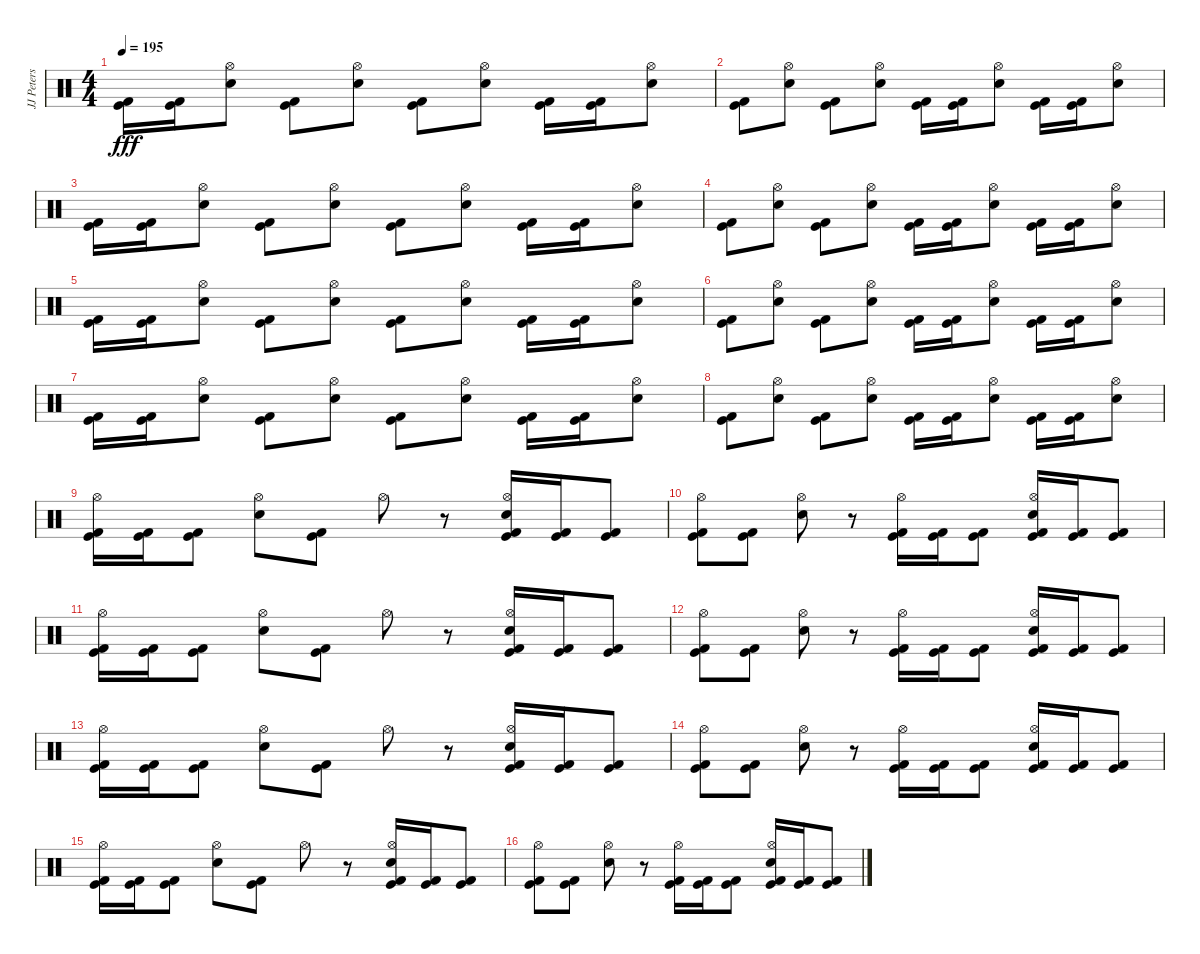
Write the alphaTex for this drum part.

\track ("JJ Peters" "JJ Peters") {instrument percussion}
\staff {score}
\articulation defaults
\ts (4 4)
\tempo 195
\clef neutral
\ks c
("Kick (hit)" "Kick (hit) 2").16{dy fff} ("Kick (hit)" "Kick (hit) 2").16 ("Hi-Hat (open)" "Electric Snare (hit)").8 ("Kick (hit)" "Kick (hit) 2").8 ("Hi-Hat (open)" "Electric Snare (hit)").8 ("Kick (hit)" "Kick (hit) 2").8 ("Hi-Hat (open)" "Electric Snare (hit)").8 ("Kick (hit)" "Kick (hit) 2").16 ("Kick (hit)" "Kick (hit) 2").16 ("Hi-Hat (open)" "Electric Snare (hit)").8 |
("Kick (hit)" "Kick (hit) 2").8 ("Hi-Hat (open)" "Electric Snare (hit)").8 ("Kick (hit)" "Kick (hit) 2").8 ("Hi-Hat (open)" "Electric Snare (hit)").8 ("Kick (hit)" "Kick (hit) 2").16 ("Kick (hit)" "Kick (hit) 2").16 ("Hi-Hat (open)" "Electric Snare (hit)").8 ("Kick (hit)" "Kick (hit) 2").16 ("Kick (hit)" "Kick (hit) 2").16 ("Hi-Hat (open)" "Electric Snare (hit)").8 |
("Kick (hit)" "Kick (hit) 2").16 ("Kick (hit)" "Kick (hit) 2").16 ("Hi-Hat (open)" "Electric Snare (hit)").8 ("Kick (hit)" "Kick (hit) 2").8 ("Hi-Hat (open)" "Electric Snare (hit)").8 ("Kick (hit)" "Kick (hit) 2").8 ("Hi-Hat (open)" "Electric Snare (hit)").8 ("Kick (hit)" "Kick (hit) 2").16 ("Kick (hit)" "Kick (hit) 2").16 ("Hi-Hat (open)" "Electric Snare (hit)").8 |
("Kick (hit)" "Kick (hit) 2").8 ("Hi-Hat (open)" "Electric Snare (hit)").8 ("Kick (hit)" "Kick (hit) 2").8 ("Hi-Hat (open)" "Electric Snare (hit)").8 ("Kick (hit)" "Kick (hit) 2").16 ("Kick (hit)" "Kick (hit) 2").16 ("Hi-Hat (open)" "Electric Snare (hit)").8 ("Kick (hit)" "Kick (hit) 2").16 ("Kick (hit)" "Kick (hit) 2").16 ("Hi-Hat (open)" "Electric Snare (hit)").8 |
("Kick (hit)" "Kick (hit) 2").16 ("Kick (hit)" "Kick (hit) 2").16 ("Hi-Hat (open)" "Electric Snare (hit)").8 ("Kick (hit)" "Kick (hit) 2").8 ("Hi-Hat (open)" "Electric Snare (hit)").8 ("Kick (hit)" "Kick (hit) 2").8 ("Hi-Hat (open)" "Electric Snare (hit)").8 ("Kick (hit)" "Kick (hit) 2").16 ("Kick (hit)" "Kick (hit) 2").16 ("Hi-Hat (open)" "Electric Snare (hit)").8 |
("Kick (hit)" "Kick (hit) 2").8 ("Hi-Hat (open)" "Electric Snare (hit)").8 ("Kick (hit)" "Kick (hit) 2").8 ("Hi-Hat (open)" "Electric Snare (hit)").8 ("Kick (hit)" "Kick (hit) 2").16 ("Kick (hit)" "Kick (hit) 2").16 ("Hi-Hat (open)" "Electric Snare (hit)").8 ("Kick (hit)" "Kick (hit) 2").16 ("Kick (hit)" "Kick (hit) 2").16 ("Hi-Hat (open)" "Electric Snare (hit)").8 |
("Kick (hit)" "Kick (hit) 2").16 ("Kick (hit)" "Kick (hit) 2").16 ("Hi-Hat (open)" "Electric Snare (hit)").8 ("Kick (hit)" "Kick (hit) 2").8 ("Hi-Hat (open)" "Electric Snare (hit)").8 ("Kick (hit)" "Kick (hit) 2").8 ("Hi-Hat (open)" "Electric Snare (hit)").8 ("Kick (hit)" "Kick (hit) 2").16 ("Kick (hit)" "Kick (hit) 2").16 ("Hi-Hat (open)" "Electric Snare (hit)").8 |
("Kick (hit)" "Kick (hit) 2").8 ("Hi-Hat (open)" "Electric Snare (hit)").8 ("Kick (hit)" "Kick (hit) 2").8 ("Hi-Hat (open)" "Electric Snare (hit)").8 ("Kick (hit)" "Kick (hit) 2").16 ("Kick (hit)" "Kick (hit) 2").16 ("Hi-Hat (open)" "Electric Snare (hit)").8 ("Kick (hit)" "Kick (hit) 2").16 ("Kick (hit)" "Kick (hit) 2").16 ("Hi-Hat (open)" "Electric Snare (hit)").8 |
("Hi-Hat (open)" "Kick (hit)" "Kick (hit) 2").16 ("Kick (hit)" "Kick (hit) 2").16 ("Kick (hit)" "Kick (hit) 2").8 ("Hi-Hat (open)" "Electric Snare (hit)").8 ("Kick (hit)" "Kick (hit) 2").8 "Hi-Hat (open)".8 r.8 ("Hi-Hat (open)" "Electric Snare (hit)" "Kick (hit)" "Kick (hit) 2").16 ("Kick (hit)" "Kick (hit) 2").16 ("Kick (hit)" "Kick (hit) 2").8 |
("Hi-Hat (open)" "Kick (hit)" "Kick (hit) 2").8 ("Kick (hit)" "Kick (hit) 2").8 ("Hi-Hat (open)" "Electric Snare (hit)").8 r.8 ("Hi-Hat (open)" "Kick (hit)" "Kick (hit) 2").16 ("Kick (hit)" "Kick (hit) 2").16 ("Kick (hit)" "Kick (hit) 2").8 ("Hi-Hat (open)" "Electric Snare (hit)" "Kick (hit)" "Kick (hit) 2").16 ("Kick (hit)" "Kick (hit) 2").16 ("Kick (hit)" "Kick (hit) 2").8 |
("Hi-Hat (open)" "Kick (hit)" "Kick (hit) 2").16 ("Kick (hit)" "Kick (hit) 2").16 ("Kick (hit)" "Kick (hit) 2").8 ("Hi-Hat (open)" "Electric Snare (hit)").8 ("Kick (hit)" "Kick (hit) 2").8 "Hi-Hat (open)".8 r.8 ("Hi-Hat (open)" "Electric Snare (hit)" "Kick (hit)" "Kick (hit) 2").16 ("Kick (hit)" "Kick (hit) 2").16 ("Kick (hit)" "Kick (hit) 2").8 |
("Hi-Hat (open)" "Kick (hit)" "Kick (hit) 2").8 ("Kick (hit)" "Kick (hit) 2").8 ("Hi-Hat (open)" "Electric Snare (hit)").8 r.8 ("Hi-Hat (open)" "Kick (hit)" "Kick (hit) 2").16 ("Kick (hit)" "Kick (hit) 2").16 ("Kick (hit)" "Kick (hit) 2").8 ("Hi-Hat (open)" "Electric Snare (hit)" "Kick (hit)" "Kick (hit) 2").16 ("Kick (hit)" "Kick (hit) 2").16 ("Kick (hit)" "Kick (hit) 2").8 |
("Hi-Hat (open)" "Kick (hit)" "Kick (hit) 2").16 ("Kick (hit)" "Kick (hit) 2").16 ("Kick (hit)" "Kick (hit) 2").8 ("Hi-Hat (open)" "Electric Snare (hit)").8 ("Kick (hit)" "Kick (hit) 2").8 "Hi-Hat (open)".8 r.8 ("Hi-Hat (open)" "Electric Snare (hit)" "Kick (hit)" "Kick (hit) 2").16 ("Kick (hit)" "Kick (hit) 2").16 ("Kick (hit)" "Kick (hit) 2").8 |
("Hi-Hat (open)" "Kick (hit)" "Kick (hit) 2").8 ("Kick (hit)" "Kick (hit) 2").8 ("Hi-Hat (open)" "Electric Snare (hit)").8 r.8 ("Hi-Hat (open)" "Kick (hit)" "Kick (hit) 2").16 ("Kick (hit)" "Kick (hit) 2").16 ("Kick (hit)" "Kick (hit) 2").8 ("Hi-Hat (open)" "Electric Snare (hit)" "Kick (hit)" "Kick (hit) 2").16 ("Kick (hit)" "Kick (hit) 2").16 ("Kick (hit)" "Kick (hit) 2").8 |
("Hi-Hat (open)" "Kick (hit)" "Kick (hit) 2").16 ("Kick (hit)" "Kick (hit) 2").16 ("Kick (hit)" "Kick (hit) 2").8 ("Hi-Hat (open)" "Electric Snare (hit)").8 ("Kick (hit)" "Kick (hit) 2").8 "Hi-Hat (open)".8 r.8 ("Hi-Hat (open)" "Electric Snare (hit)" "Kick (hit)" "Kick (hit) 2").16 ("Kick (hit)" "Kick (hit) 2").16 ("Kick (hit)" "Kick (hit) 2").8 |
("Hi-Hat (open)" "Kick (hit)" "Kick (hit) 2").8 ("Kick (hit)" "Kick (hit) 2").8 ("Hi-Hat (open)" "Electric Snare (hit)").8 r.8 ("Hi-Hat (open)" "Kick (hit)" "Kick (hit) 2").16 ("Kick (hit)" "Kick (hit) 2").16 ("Kick (hit)" "Kick (hit) 2").8 ("Hi-Hat (open)" "Electric Snare (hit)" "Kick (hit)" "Kick (hit) 2").16 ("Kick (hit)" "Kick (hit) 2").16 ("Kick (hit)" "Kick (hit) 2").8
